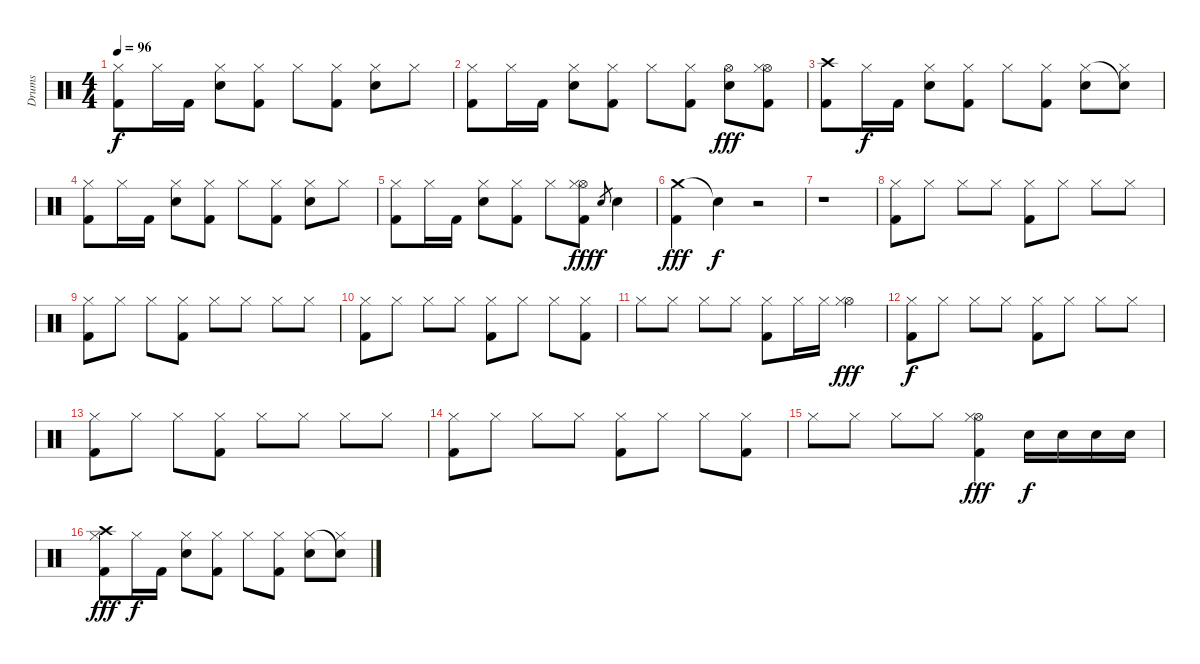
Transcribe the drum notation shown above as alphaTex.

\track ("Drums" "Drums") {instrument percussion}
\staff {score}
\articulation defaults
\ts (4 4)
\tempo 96
\clef neutral
\ks c
("Hi-Hat (closed)" "Kick (hit) 2").8{dy f} "Hi-Hat (closed)".16 "Kick (hit) 2".16 ("Hi-Hat (closed)" "Snare (hit) 2").8 ("Hi-Hat (closed)" "Kick (hit) 2").8 "Hi-Hat (closed)".8 ("Hi-Hat (closed)" "Kick (hit) 2").8 ("Hi-Hat (closed)" "Snare (hit) 2").8 "Hi-Hat (closed)".8 |
("Hi-Hat (closed)" "Kick (hit) 2").8 "Hi-Hat (closed)".16 "Kick (hit) 2".16 ("Hi-Hat (closed)" "Snare (hit) 2").8 ("Hi-Hat (closed)" "Kick (hit) 2").8 "Hi-Hat (closed)".8 ("Hi-Hat (closed)" "Kick (hit) 2").8 ("Hi-Hat (open)" "Snare (hit) 2").8{dy fff} ("Hi-Hat (open)" "Hi-Hat (closed)" "Kick (hit) 2").8 |
("Crash high (hit)" "Kick (hit) 2").8 "Hi-Hat (closed)".16{dy f} "Kick (hit) 2".16 ("Hi-Hat (closed)" "Snare (hit) 2").8 ("Hi-Hat (closed)" "Kick (hit) 2").8 "Hi-Hat (closed)".8 ("Hi-Hat (closed)" "Kick (hit) 2").8 ("Hi-Hat (closed)" "Snare (hit) 2").8 ("Snare (hit)"{t} "Hi-Hat (closed)").8 |
("Hi-Hat (closed)" "Kick (hit) 2").8 "Hi-Hat (closed)".16 "Kick (hit) 2".16 ("Hi-Hat (closed)" "Snare (hit) 2").8 ("Hi-Hat (closed)" "Kick (hit) 2").8 "Hi-Hat (closed)".8 ("Hi-Hat (closed)" "Kick (hit) 2").8 ("Hi-Hat (closed)" "Snare (hit) 2").8 "Hi-Hat (closed)".8 |
("Hi-Hat (closed)" "Kick (hit) 2").8 "Hi-Hat (closed)".16 "Kick (hit) 2".16 ("Hi-Hat (closed)" "Snare (hit) 2").8 ("Hi-Hat (closed)" "Kick (hit) 2").8 "Hi-Hat (closed)".8 ("Hi-Hat (open)" "Hi-Hat (closed)" "Kick (hit) 2").8{dy fff} "Snare (hit) 2".8{gr dy f} "Snare (hit) 2".4 |
("Crash medium (hit)" "Kick (hit) 2").4{dy fff} "Snare (hit)"{t}.4{dy f} r.2 |
r.1 |
("Hi-Hat (closed)" "Kick (hit) 2").8 "Hi-Hat (closed)".8 "Hi-Hat (closed)".8 "Hi-Hat (closed)".8 ("Hi-Hat (closed)" "Kick (hit) 2").8 "Hi-Hat (closed)".8 "Hi-Hat (closed)".8 "Hi-Hat (closed)".8 |
("Hi-Hat (closed)" "Kick (hit) 2").8 "Hi-Hat (closed)".8 "Hi-Hat (closed)".8 ("Hi-Hat (closed)" "Kick (hit) 2").8 "Hi-Hat (closed)".8 "Hi-Hat (closed)".8 "Hi-Hat (closed)".8 "Hi-Hat (closed)".8 |
("Hi-Hat (closed)" "Kick (hit) 2").8 "Hi-Hat (closed)".8 "Hi-Hat (closed)".8 "Hi-Hat (closed)".8 ("Hi-Hat (closed)" "Kick (hit) 2").8 "Hi-Hat (closed)".8 "Hi-Hat (closed)".8 ("Hi-Hat (closed)" "Kick (hit) 2").8 |
"Hi-Hat (closed)".8 "Hi-Hat (closed)".8 "Hi-Hat (closed)".8 "Hi-Hat (closed)".8 ("Hi-Hat (closed)" "Kick (hit) 2").8 "Hi-Hat (closed)".16 "Hi-Hat (closed)".16 ("Hi-Hat (open)" "Hi-Hat (closed)").4{dy fff} |
("Hi-Hat (closed)" "Kick (hit) 2").8{dy f} "Hi-Hat (closed)".8 "Hi-Hat (closed)".8 "Hi-Hat (closed)".8 ("Hi-Hat (closed)" "Kick (hit) 2").8 "Hi-Hat (closed)".8 "Hi-Hat (closed)".8 "Hi-Hat (closed)".8 |
("Hi-Hat (closed)" "Kick (hit) 2").8 "Hi-Hat (closed)".8 "Hi-Hat (closed)".8 ("Hi-Hat (closed)" "Kick (hit) 2").8 "Hi-Hat (closed)".8 "Hi-Hat (closed)".8 "Hi-Hat (closed)".8 "Hi-Hat (closed)".8 |
("Hi-Hat (closed)" "Kick (hit) 2").8 "Hi-Hat (closed)".8 "Hi-Hat (closed)".8 "Hi-Hat (closed)".8 ("Hi-Hat (closed)" "Kick (hit) 2").8 "Hi-Hat (closed)".8 "Hi-Hat (closed)".8 ("Hi-Hat (closed)" "Kick (hit) 2").8 |
"Hi-Hat (closed)".8 "Hi-Hat (closed)".8 "Hi-Hat (closed)".8 "Hi-Hat (closed)".8 ("Hi-Hat (open)" "Hi-Hat (closed)" "Kick (hit) 2").4{dy fff} "Snare (hit) 2".16{dy f} "Snare (hit) 2".16 "Snare (hit) 2".16 "Snare (hit) 2".16 |
("Crash high (hit)" "Hi-Hat (closed)" "Kick (hit) 2").8{dy fff} "Hi-Hat (closed)".16{dy f} "Kick (hit) 2".16 ("Hi-Hat (closed)" "Snare (hit) 2").8 ("Hi-Hat (closed)" "Kick (hit) 2").8 "Hi-Hat (closed)".8 ("Hi-Hat (closed)" "Kick (hit) 2").8 ("Hi-Hat (closed)" "Snare (hit) 2").8 ("Snare (hit)"{t} "Hi-Hat (closed)").8
